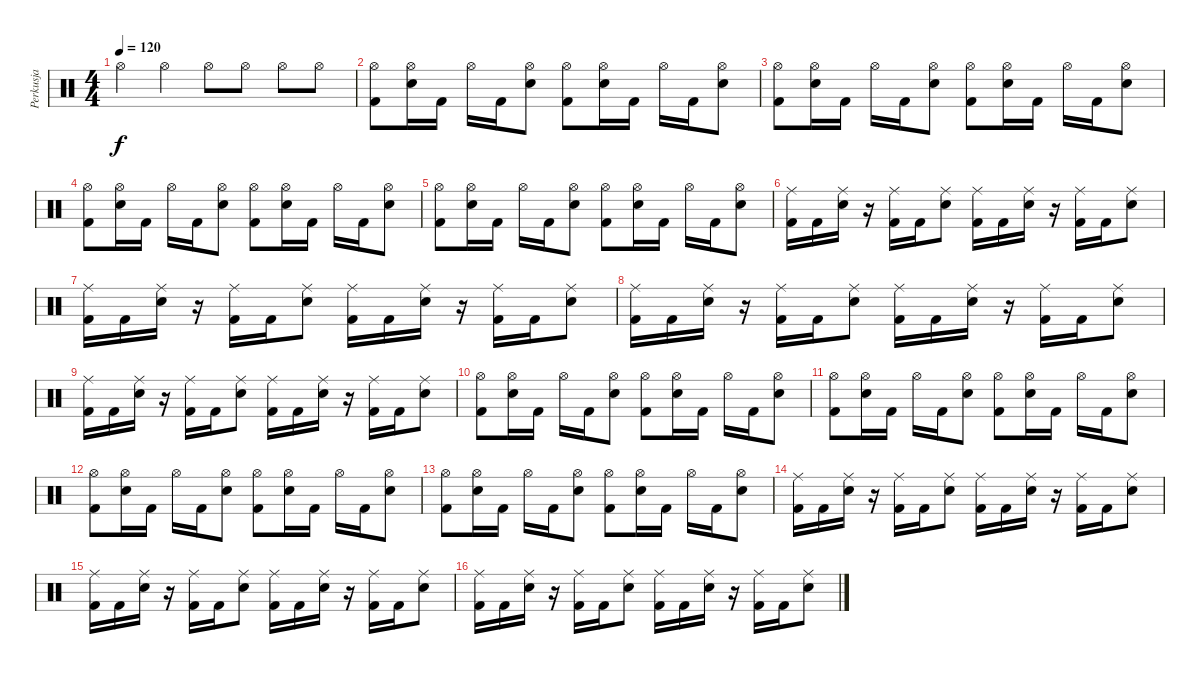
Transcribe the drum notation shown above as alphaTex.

\track ("Perkusja" "Perkusja") {instrument percussion}
\staff {score}
\articulation defaults
\ts (4 4)
\tempo 120
\clef neutral
\ks c "Hi-Hat (open)".4{dy f} "Hi-Hat (open)".4 "Hi-Hat (open)".8 "Hi-Hat (open)".8 "Hi-Hat (open)".8 "Hi-Hat (open)".8
|
("Hi-Hat (open)" "Kick (hit) 2").8 ("Hi-Hat (open)" "Electric Snare (hit)").16 "Kick (hit) 2".16 "Hi-Hat (open)".16 "Kick (hit) 2".16 ("Hi-Hat (open)" "Electric Snare (hit)").8 ("Hi-Hat (open)" "Kick (hit) 2").8 ("Hi-Hat (open)" "Electric Snare (hit)").16 "Kick (hit) 2".16 "Hi-Hat (open)".16 "Kick (hit) 2".16 ("Hi-Hat (open)" "Electric Snare (hit)").8 |
("Hi-Hat (open)" "Kick (hit) 2").8 ("Hi-Hat (open)" "Electric Snare (hit)").16 "Kick (hit) 2".16 "Hi-Hat (open)".16 "Kick (hit) 2".16 ("Hi-Hat (open)" "Electric Snare (hit)").8 ("Hi-Hat (open)" "Kick (hit) 2").8 ("Hi-Hat (open)" "Electric Snare (hit)").16 "Kick (hit) 2".16 "Hi-Hat (open)".16 "Kick (hit) 2".16 ("Hi-Hat (open)" "Electric Snare (hit)").8 |
("Hi-Hat (open)" "Kick (hit) 2").8 ("Hi-Hat (open)" "Electric Snare (hit)").16 "Kick (hit) 2".16 "Hi-Hat (open)".16 "Kick (hit) 2".16 ("Hi-Hat (open)" "Electric Snare (hit)").8 ("Hi-Hat (open)" "Kick (hit) 2").8 ("Hi-Hat (open)" "Electric Snare (hit)").16 "Kick (hit) 2".16 "Hi-Hat (open)".16 "Kick (hit) 2".16 ("Hi-Hat (open)" "Electric Snare (hit)").8 |
("Hi-Hat (open)" "Kick (hit) 2").8 ("Hi-Hat (open)" "Electric Snare (hit)").16 "Kick (hit) 2".16 "Hi-Hat (open)".16 "Kick (hit) 2".16 ("Hi-Hat (open)" "Electric Snare (hit)").8 ("Hi-Hat (open)" "Kick (hit) 2").8 ("Hi-Hat (open)" "Electric Snare (hit)").16 "Kick (hit) 2".16 "Hi-Hat (open)".16 "Kick (hit) 2".16 ("Hi-Hat (open)" "Electric Snare (hit)").8 |
("Ride (middle)" "Kick (hit) 2").16 "Kick (hit) 2".16 ("Ride (middle)" "Electric Snare (hit)").16 r.16 ("Ride (middle)" "Kick (hit) 2").16 "Kick (hit) 2".16 ("Ride (middle)" "Electric Snare (hit)").8 ("Ride (middle)" "Kick (hit) 2").16 "Kick (hit) 2".16 ("Ride (middle)" "Electric Snare (hit)").16 r.16 ("Ride (middle)" "Kick (hit) 2").16 "Kick (hit) 2".16 ("Ride (middle)" "Electric Snare (hit)").8 |
("Ride (middle)" "Kick (hit) 2").16 "Kick (hit) 2".16 ("Ride (middle)" "Electric Snare (hit)").16 r.16 ("Ride (middle)" "Kick (hit) 2").16 "Kick (hit) 2".16 ("Ride (middle)" "Electric Snare (hit)").8 ("Ride (middle)" "Kick (hit) 2").16 "Kick (hit) 2".16 ("Ride (middle)" "Electric Snare (hit)").16 r.16 ("Ride (middle)" "Kick (hit) 2").16 "Kick (hit) 2".16 ("Ride (middle)" "Electric Snare (hit)").8 |
("Ride (middle)" "Kick (hit) 2").16 "Kick (hit) 2".16 ("Ride (middle)" "Electric Snare (hit)").16 r.16 ("Ride (middle)" "Kick (hit) 2").16 "Kick (hit) 2".16 ("Ride (middle)" "Electric Snare (hit)").8 ("Ride (middle)" "Kick (hit) 2").16 "Kick (hit) 2".16 ("Ride (middle)" "Electric Snare (hit)").16 r.16 ("Ride (middle)" "Kick (hit) 2").16 "Kick (hit) 2".16 ("Ride (middle)" "Electric Snare (hit)").8 |
("Ride (middle)" "Kick (hit) 2").16 "Kick (hit) 2".16 ("Ride (middle)" "Electric Snare (hit)").16 r.16 ("Ride (middle)" "Kick (hit) 2").16 "Kick (hit) 2".16 ("Ride (middle)" "Electric Snare (hit)").8 ("Ride (middle)" "Kick (hit) 2").16 "Kick (hit) 2".16 ("Ride (middle)" "Electric Snare (hit)").16 r.16 ("Ride (middle)" "Kick (hit) 2").16 "Kick (hit) 2".16 ("Ride (middle)" "Electric Snare (hit)").8 |
("Hi-Hat (open)" "Kick (hit) 2").8 ("Hi-Hat (open)" "Electric Snare (hit)").16 "Kick (hit) 2".16 "Hi-Hat (open)".16 "Kick (hit) 2".16 ("Hi-Hat (open)" "Electric Snare (hit)").8 ("Hi-Hat (open)" "Kick (hit) 2").8 ("Hi-Hat (open)" "Electric Snare (hit)").16 "Kick (hit) 2".16 "Hi-Hat (open)".16 "Kick (hit) 2".16 ("Hi-Hat (open)" "Electric Snare (hit)").8 |
("Hi-Hat (open)" "Kick (hit) 2").8 ("Hi-Hat (open)" "Electric Snare (hit)").16 "Kick (hit) 2".16 "Hi-Hat (open)".16 "Kick (hit) 2".16 ("Hi-Hat (open)" "Electric Snare (hit)").8 ("Hi-Hat (open)" "Kick (hit) 2").8 ("Hi-Hat (open)" "Electric Snare (hit)").16 "Kick (hit) 2".16 "Hi-Hat (open)".16 "Kick (hit) 2".16 ("Hi-Hat (open)" "Electric Snare (hit)").8 |
("Hi-Hat (open)" "Kick (hit) 2").8 ("Hi-Hat (open)" "Electric Snare (hit)").16 "Kick (hit) 2".16 "Hi-Hat (open)".16 "Kick (hit) 2".16 ("Hi-Hat (open)" "Electric Snare (hit)").8 ("Hi-Hat (open)" "Kick (hit) 2").8 ("Hi-Hat (open)" "Electric Snare (hit)").16 "Kick (hit) 2".16 "Hi-Hat (open)".16 "Kick (hit) 2".16 ("Hi-Hat (open)" "Electric Snare (hit)").8 |
("Hi-Hat (open)" "Kick (hit) 2").8 ("Hi-Hat (open)" "Electric Snare (hit)").16 "Kick (hit) 2".16 "Hi-Hat (open)".16 "Kick (hit) 2".16 ("Hi-Hat (open)" "Electric Snare (hit)").8 ("Hi-Hat (open)" "Kick (hit) 2").8 ("Hi-Hat (open)" "Electric Snare (hit)").16 "Kick (hit) 2".16 "Hi-Hat (open)".16 "Kick (hit) 2".16 ("Hi-Hat (open)" "Electric Snare (hit)").8 |
("Ride (middle)" "Kick (hit) 2").16 "Kick (hit) 2".16 ("Ride (middle)" "Electric Snare (hit)").16 r.16 ("Ride (middle)" "Kick (hit) 2").16 "Kick (hit) 2".16 ("Ride (middle)" "Electric Snare (hit)").8 ("Ride (middle)" "Kick (hit) 2").16 "Kick (hit) 2".16 ("Ride (middle)" "Electric Snare (hit)").16 r.16 ("Ride (middle)" "Kick (hit) 2").16 "Kick (hit) 2".16 ("Ride (middle)" "Electric Snare (hit)").8 |
("Ride (middle)" "Kick (hit) 2").16 "Kick (hit) 2".16 ("Ride (middle)" "Electric Snare (hit)").16 r.16 ("Ride (middle)" "Kick (hit) 2").16 "Kick (hit) 2".16 ("Ride (middle)" "Electric Snare (hit)").8 ("Ride (middle)" "Kick (hit) 2").16 "Kick (hit) 2".16 ("Ride (middle)" "Electric Snare (hit)").16 r.16 ("Ride (middle)" "Kick (hit) 2").16 "Kick (hit) 2".16 ("Ride (middle)" "Electric Snare (hit)").8 |
("Ride (middle)" "Kick (hit) 2").16 "Kick (hit) 2".16 ("Ride (middle)" "Electric Snare (hit)").16 r.16 ("Ride (middle)" "Kick (hit) 2").16 "Kick (hit) 2".16 ("Ride (middle)" "Electric Snare (hit)").8 ("Ride (middle)" "Kick (hit) 2").16 "Kick (hit) 2".16 ("Ride (middle)" "Electric Snare (hit)").16 r.16 ("Ride (middle)" "Kick (hit) 2").16 "Kick (hit) 2".16 ("Ride (middle)" "Electric Snare (hit)").8
